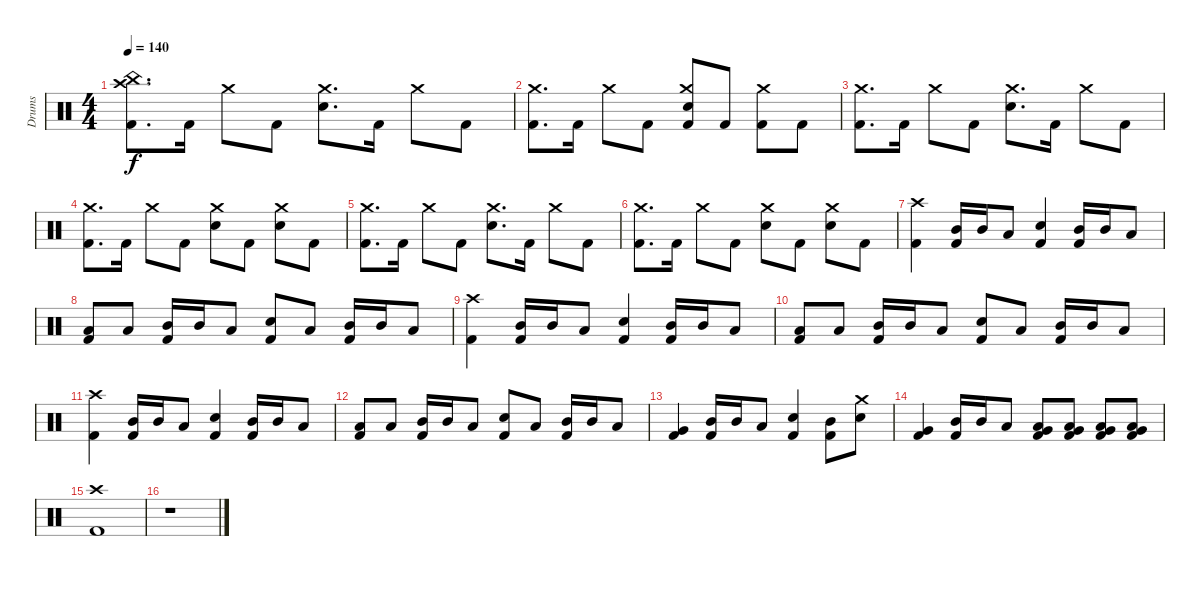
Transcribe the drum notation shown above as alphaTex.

\track ("Drums" "Drums") {instrument percussion}
\staff {score}
\articulation defaults
\ts (4 4)
\tempo 140
\clef neutral
\ks c
("Crash high (hit)" "China (hit)" "Kick (hit) 2").8{d dy f} "Kick (hit) 2".16 "Crash medium (hit)".8 "Kick (hit) 2".8 ("Crash medium (hit)" "Snare (hit) 2").8{d} "Kick (hit) 2".16 "Crash medium (hit)".8 "Kick (hit) 2".8 |
("Crash medium (hit)" "Kick (hit) 2").8{d} "Kick (hit) 2".16 "Crash medium (hit)".8 "Kick (hit) 2".8 ("Crash medium (hit)" "Snare (hit) 2" "Kick (hit) 2").8 "Kick (hit) 2".8 ("Crash medium (hit)" "Kick (hit) 2").8 "Kick (hit) 2".8 |
("Crash medium (hit)" "Kick (hit) 2").8{d} "Kick (hit) 2".16 "Crash medium (hit)".8 "Kick (hit) 2".8 ("Crash medium (hit)" "Snare (hit) 2").8{d} "Kick (hit) 2".16 "Crash medium (hit)".8 "Kick (hit) 2".8 |
("Crash medium (hit)" "Kick (hit) 2").8{d} "Kick (hit) 2".16 "Crash medium (hit)".8 "Kick (hit) 2".8 ("Crash medium (hit)" "Snare (hit) 2").8 "Kick (hit) 2".8 ("Crash medium (hit)" "Snare (hit) 2").8 "Kick (hit) 2".8 |
("Crash medium (hit)" "Kick (hit) 2").8{d} "Kick (hit) 2".16 "Crash medium (hit)".8 "Kick (hit) 2".8 ("Crash medium (hit)" "Snare (hit) 2").8{d} "Kick (hit) 2".16 "Crash medium (hit)".8 "Kick (hit) 2".8 |
("Crash medium (hit)" "Kick (hit) 2").8{d} "Kick (hit) 2".16 "Crash medium (hit)".8 "Kick (hit) 2".8 ("Crash medium (hit)" "Snare (hit) 2").8 "Kick (hit) 2".8 ("Crash medium (hit)" "Snare (hit) 2").8 "Kick (hit) 2".8 |
("Crash high (hit)" "Kick (hit) 2").4 ("Mid Tom (hit)" "Kick (hit) 2").16 "Mid Tom (hit)".16 "Low Tom (hit)".8 ("Snare (hit) 2" "Kick (hit) 2").4 ("Mid Tom (hit)" "Kick (hit) 2").16 "Mid Tom (hit)".16 "Low Tom (hit)".8 |
("Low Tom (hit)" "Kick (hit) 2").8 "Low Tom (hit)".8 ("Mid Tom (hit)" "Kick (hit) 2").16 "Mid Tom (hit)".16 "Low Tom (hit)".8 ("Snare (hit) 2" "Kick (hit) 2").8 "Low Tom (hit)".8 ("Mid Tom (hit)" "Kick (hit) 2").16 "Mid Tom (hit)".16 "Low Tom (hit)".8 |
("Crash high (hit)" "Kick (hit) 2").4 ("Mid Tom (hit)" "Kick (hit) 2").16 "Mid Tom (hit)".16 "Low Tom (hit)".8 ("Snare (hit) 2" "Kick (hit) 2").4 ("Mid Tom (hit)" "Kick (hit) 2").16 "Mid Tom (hit)".16 "Low Tom (hit)".8 |
("Low Tom (hit)" "Kick (hit) 2").8 "Low Tom (hit)".8 ("Mid Tom (hit)" "Kick (hit) 2").16 "Mid Tom (hit)".16 "Low Tom (hit)".8 ("Snare (hit) 2" "Kick (hit) 2").8 "Low Tom (hit)".8 ("Mid Tom (hit)" "Kick (hit) 2").16 "Mid Tom (hit)".16 "Low Tom (hit)".8 |
("Crash high (hit)" "Kick (hit) 2").4 ("Mid Tom (hit)" "Kick (hit) 2").16 "Mid Tom (hit)".16 "Low Tom (hit)".8 ("Snare (hit) 2" "Kick (hit) 2").4 ("Mid Tom (hit)" "Kick (hit) 2").16 "Mid Tom (hit)".16 "Low Tom (hit)".8 |
("Low Tom (hit)" "Kick (hit) 2").8 "Low Tom (hit)".8 ("Mid Tom (hit)" "Kick (hit) 2").16 "Mid Tom (hit)".16 "Low Tom (hit)".8 ("Snare (hit) 2" "Kick (hit) 2").8 "Low Tom (hit)".8 ("Mid Tom (hit)" "Kick (hit) 2").16 "Mid Tom (hit)".16 "Low Tom (hit)".8 |
("Very Low Tom (hit)" "Kick (hit) 2").4 ("Mid Tom (hit)" "Kick (hit) 2").16 "Mid Tom (hit)".16 "Low Tom (hit)".8 ("Snare (hit) 2" "Kick (hit) 2").4 ("Mid Tom (hit)" "Kick (hit) 2").8 ("Crash medium (hit)" "Snare (hit) 2").8 |
("Very Low Tom (hit)" "Kick (hit) 2").4 ("Mid Tom (hit)" "Kick (hit) 2").16 "Mid Tom (hit)".16 "Low Tom (hit)".8 ("Very Low Tom (hit)" "Low Floor Tom (hit)" "Kick (hit) 2").8 ("Very Low Tom (hit)" "Low Floor Tom (hit)" "Kick (hit) 2").8 ("Very Low Tom (hit)" "Low Floor Tom (hit)" "Kick (hit) 2").8 ("Very Low Tom (hit)" "Low Floor Tom (hit)" "Kick (hit) 2").8 |
("Crash high (hit)" "Kick (hit) 2").1 |
r.1
